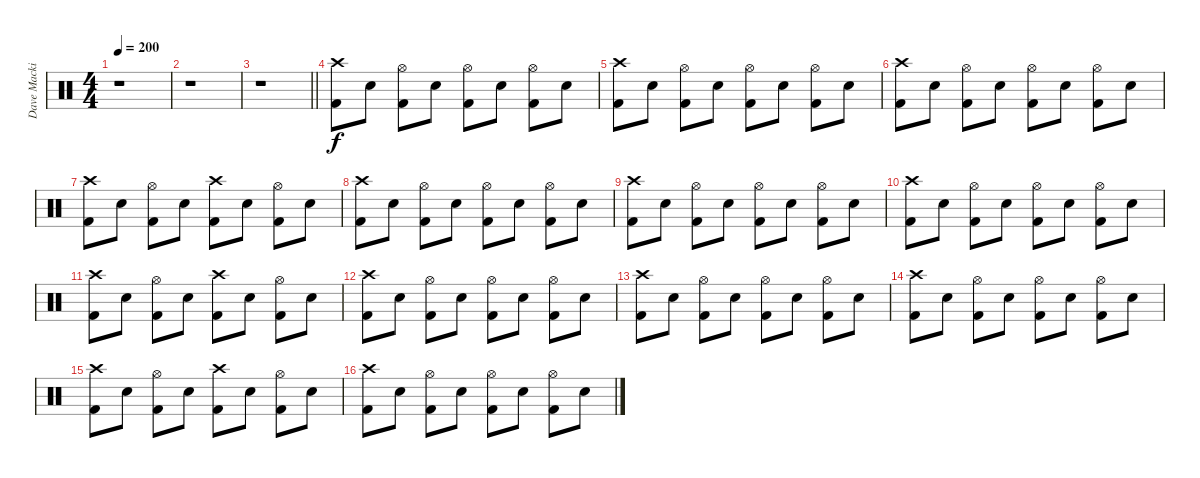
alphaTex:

\track ("Dave Mackintosh | Drums" "Dave Macki") {instrument percussion}
\staff {score}
\articulation defaults
\ts (4 4)
\tempo 200
\clef neutral
\ks c
r.1{dy f} |
r.1 |
\barLineRight lightlight
r.1 |
("Crash high (hit)" "Kick (hit) 2").8 "Snare (hit) 2".8 ("Hi-Hat (open)" "Kick (hit) 2").8 "Snare (hit) 2".8 ("Hi-Hat (open)" "Kick (hit) 2").8 "Snare (hit) 2".8 ("Hi-Hat (open)" "Kick (hit) 2").8 "Snare (hit) 2".8 |
("Crash high (hit)" "Kick (hit) 2").8 "Snare (hit) 2".8 ("Hi-Hat (open)" "Kick (hit) 2").8 "Snare (hit) 2".8 ("Hi-Hat (open)" "Kick (hit) 2").8 "Snare (hit) 2".8 ("Hi-Hat (open)" "Kick (hit) 2").8 "Snare (hit) 2".8 |
("Crash high (hit)" "Kick (hit) 2").8 "Snare (hit) 2".8 ("Hi-Hat (open)" "Kick (hit) 2").8 "Snare (hit) 2".8 ("Hi-Hat (open)" "Kick (hit) 2").8 "Snare (hit) 2".8 ("Hi-Hat (open)" "Kick (hit) 2").8 "Snare (hit) 2".8 |
("Crash high (hit)" "Kick (hit) 2").8 "Snare (hit) 2".8 ("Hi-Hat (open)" "Kick (hit) 2").8 "Snare (hit) 2".8 ("Crash high (hit)" "Kick (hit) 2").8 "Snare (hit) 2".8 ("Hi-Hat (open)" "Kick (hit) 2").8 "Snare (hit) 2".8 |
("Crash high (hit)" "Kick (hit) 2").8 "Snare (hit) 2".8 ("Hi-Hat (open)" "Kick (hit) 2").8 "Snare (hit) 2".8 ("Hi-Hat (open)" "Kick (hit) 2").8 "Snare (hit) 2".8 ("Hi-Hat (open)" "Kick (hit) 2").8 "Snare (hit) 2".8 |
("Crash high (hit)" "Kick (hit) 2").8 "Snare (hit) 2".8 ("Hi-Hat (open)" "Kick (hit) 2").8 "Snare (hit) 2".8 ("Hi-Hat (open)" "Kick (hit) 2").8 "Snare (hit) 2".8 ("Hi-Hat (open)" "Kick (hit) 2").8 "Snare (hit) 2".8 |
("Crash high (hit)" "Kick (hit) 2").8 "Snare (hit) 2".8 ("Hi-Hat (open)" "Kick (hit) 2").8 "Snare (hit) 2".8 ("Hi-Hat (open)" "Kick (hit) 2").8 "Snare (hit) 2".8 ("Hi-Hat (open)" "Kick (hit) 2").8 "Snare (hit) 2".8 |
("Crash high (hit)" "Kick (hit) 2").8 "Snare (hit) 2".8 ("Hi-Hat (open)" "Kick (hit) 2").8 "Snare (hit) 2".8 ("Crash high (hit)" "Kick (hit) 2").8 "Snare (hit) 2".8 ("Hi-Hat (open)" "Kick (hit) 2").8 "Snare (hit) 2".8 |
("Crash high (hit)" "Kick (hit) 2").8 "Snare (hit) 2".8 ("Hi-Hat (open)" "Kick (hit) 2").8 "Snare (hit) 2".8 ("Hi-Hat (open)" "Kick (hit) 2").8 "Snare (hit) 2".8 ("Hi-Hat (open)" "Kick (hit) 2").8 "Snare (hit) 2".8 |
("Crash high (hit)" "Kick (hit) 2").8 "Snare (hit) 2".8 ("Hi-Hat (open)" "Kick (hit) 2").8 "Snare (hit) 2".8 ("Hi-Hat (open)" "Kick (hit) 2").8 "Snare (hit) 2".8 ("Hi-Hat (open)" "Kick (hit) 2").8 "Snare (hit) 2".8 |
("Crash high (hit)" "Kick (hit) 2").8 "Snare (hit) 2".8 ("Hi-Hat (open)" "Kick (hit) 2").8 "Snare (hit) 2".8 ("Hi-Hat (open)" "Kick (hit) 2").8 "Snare (hit) 2".8 ("Hi-Hat (open)" "Kick (hit) 2").8 "Snare (hit) 2".8 |
("Crash high (hit)" "Kick (hit) 2").8 "Snare (hit) 2".8 ("Hi-Hat (open)" "Kick (hit) 2").8 "Snare (hit) 2".8 ("Crash high (hit)" "Kick (hit) 2").8 "Snare (hit) 2".8 ("Hi-Hat (open)" "Kick (hit) 2").8 "Snare (hit) 2".8 |
("Crash high (hit)" "Kick (hit) 2").8 "Snare (hit) 2".8 ("Hi-Hat (open)" "Kick (hit) 2").8 "Snare (hit) 2".8 ("Hi-Hat (open)" "Kick (hit) 2").8 "Snare (hit) 2".8 ("Hi-Hat (open)" "Kick (hit) 2").8 "Snare (hit) 2".8
